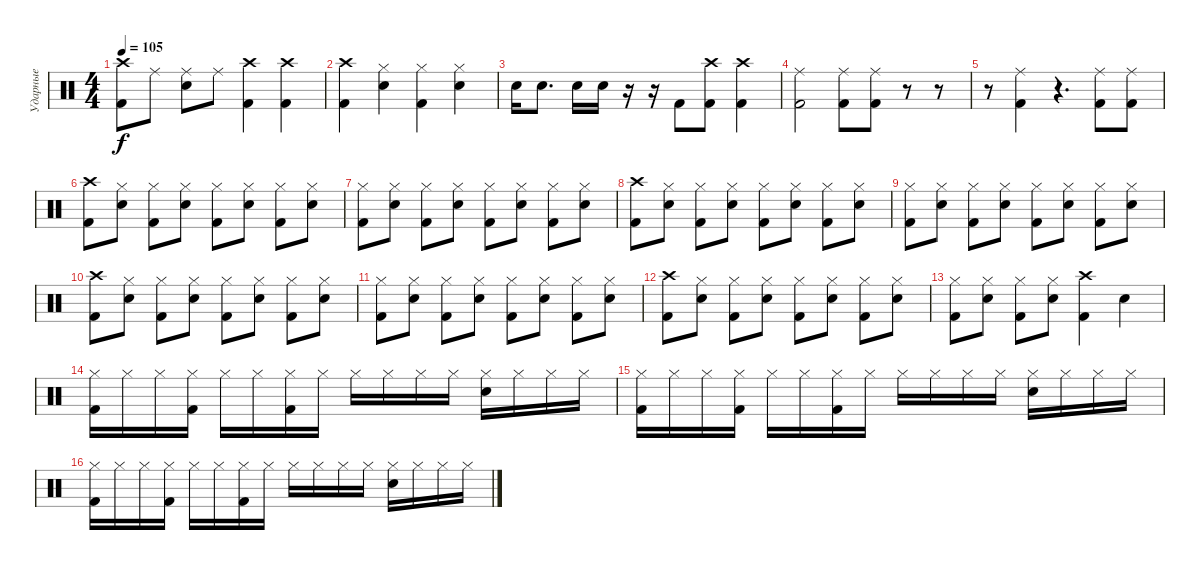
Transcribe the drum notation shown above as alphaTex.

\track ("Ударные" "Ударные") {instrument percussion}
\staff {score}
\articulation defaults
\ts (4 4)
\tempo 105
\clef neutral
\ks c
("Crash high (hit)" "Kick (hit) 2").8{dy f} "Ride (middle)".8 ("Electric Snare (hit)" "Ride (middle)").8 "Ride (middle)".8 ("Crash high (hit)" "Kick (hit) 2").4 ("Kick (hit) 2" "Crash high (hit)").4 |
("Kick (hit) 2" "Crash high (hit)").4 ("Hi-Hat (closed)" "Electric Snare (hit)").4 ("Hi-Hat (closed)" "Kick (hit) 2").4 ("Hi-Hat (closed)" "Electric Snare (hit)").4 |
"Electric Snare (hit)".16 "Electric Snare (hit)".8{d} "Electric Snare (hit)".16 "Electric Snare (hit)".16 r.16 r.16 "Kick (hit) 2".8 ("Crash high (hit)" "Kick (hit) 2").8 ("Kick (hit) 2" "Crash high (hit)").4 |
("Kick (hit) 2" "Ride (middle)").2 ("Kick (hit) 2" "Ride (middle)").8 ("Kick (hit) 2" "Ride (middle)").8 r.8 r.8 |
r.8 ("Ride (middle)" "Kick (hit) 2").4 r.4{d} ("Ride (middle)" "Kick (hit) 2").8 ("Kick (hit) 2" "Ride (middle)").8 |
("Crash high (hit)" "Kick (hit) 2").8 ("Hi-Hat (closed)" "Electric Snare (hit)").8 ("Hi-Hat (closed)" "Kick (hit) 2").8 ("Hi-Hat (closed)" "Electric Snare (hit)").8 ("Hi-Hat (closed)" "Kick (hit) 2").8 ("Hi-Hat (closed)" "Electric Snare (hit)").8 ("Hi-Hat (closed)" "Kick (hit) 2").8 ("Hi-Hat (closed)" "Electric Snare (hit)").8 |
("Hi-Hat (closed)" "Kick (hit) 2").8 ("Hi-Hat (closed)" "Electric Snare (hit)").8 ("Hi-Hat (closed)" "Kick (hit) 2").8 ("Hi-Hat (closed)" "Electric Snare (hit)").8 ("Hi-Hat (closed)" "Kick (hit) 2").8 ("Hi-Hat (closed)" "Electric Snare (hit)").8 ("Hi-Hat (closed)" "Kick (hit) 2").8 ("Hi-Hat (closed)" "Electric Snare (hit)").8 |
("Crash high (hit)" "Kick (hit) 2").8 ("Hi-Hat (closed)" "Electric Snare (hit)").8 ("Hi-Hat (closed)" "Kick (hit) 2").8 ("Hi-Hat (closed)" "Electric Snare (hit)").8 ("Hi-Hat (closed)" "Kick (hit) 2").8 ("Hi-Hat (closed)" "Electric Snare (hit)").8 ("Hi-Hat (closed)" "Kick (hit) 2").8 ("Hi-Hat (closed)" "Electric Snare (hit)").8 |
("Hi-Hat (closed)" "Kick (hit) 2").8 ("Hi-Hat (closed)" "Electric Snare (hit)").8 ("Hi-Hat (closed)" "Kick (hit) 2").8 ("Hi-Hat (closed)" "Electric Snare (hit)").8 ("Hi-Hat (closed)" "Kick (hit) 2").8 ("Hi-Hat (closed)" "Electric Snare (hit)").8 ("Hi-Hat (closed)" "Kick (hit) 2").8 ("Hi-Hat (closed)" "Electric Snare (hit)").8 |
("Crash high (hit)" "Kick (hit) 2").8 ("Hi-Hat (closed)" "Electric Snare (hit)").8 ("Hi-Hat (closed)" "Kick (hit) 2").8 ("Hi-Hat (closed)" "Electric Snare (hit)").8 ("Hi-Hat (closed)" "Kick (hit) 2").8 ("Hi-Hat (closed)" "Electric Snare (hit)").8 ("Hi-Hat (closed)" "Kick (hit) 2").8 ("Hi-Hat (closed)" "Electric Snare (hit)").8 |
("Hi-Hat (closed)" "Kick (hit) 2").8 ("Hi-Hat (closed)" "Electric Snare (hit)").8 ("Hi-Hat (closed)" "Kick (hit) 2").8 ("Hi-Hat (closed)" "Electric Snare (hit)").8 ("Hi-Hat (closed)" "Kick (hit) 2").8 ("Hi-Hat (closed)" "Electric Snare (hit)").8 ("Hi-Hat (closed)" "Kick (hit) 2").8 ("Hi-Hat (closed)" "Electric Snare (hit)").8 |
("Crash high (hit)" "Kick (hit) 2").8 ("Hi-Hat (closed)" "Electric Snare (hit)").8 ("Hi-Hat (closed)" "Kick (hit) 2").8 ("Hi-Hat (closed)" "Electric Snare (hit)").8 ("Hi-Hat (closed)" "Kick (hit) 2").8 ("Hi-Hat (closed)" "Electric Snare (hit)").8 ("Hi-Hat (closed)" "Kick (hit) 2").8 ("Hi-Hat (closed)" "Electric Snare (hit)").8 |
("Hi-Hat (closed)" "Kick (hit) 2").8 ("Hi-Hat (closed)" "Electric Snare (hit)").8 ("Hi-Hat (closed)" "Kick (hit) 2").8 ("Hi-Hat (closed)" "Electric Snare (hit)").8 ("Crash high (hit)" "Kick (hit) 2").4 "Electric Snare (hit)".4 |
("Kick (hit) 2" "Hi-Hat (closed)").16 "Hi-Hat (closed)".16 "Hi-Hat (closed)".16 ("Kick (hit) 2" "Hi-Hat (closed)").16 "Hi-Hat (closed)".16 "Hi-Hat (closed)".16 ("Kick (hit) 2" "Hi-Hat (closed)").16 "Hi-Hat (closed)".16 "Hi-Hat (closed)".16 "Hi-Hat (closed)".16 "Hi-Hat (closed)".16 "Hi-Hat (closed)".16 ("Electric Snare (hit)" "Hi-Hat (closed)").16 "Hi-Hat (closed)".16 "Hi-Hat (closed)".16 "Hi-Hat (closed)".16 |
("Kick (hit) 2" "Hi-Hat (closed)").16 "Hi-Hat (closed)".16 "Hi-Hat (closed)".16 ("Kick (hit) 2" "Hi-Hat (closed)").16 "Hi-Hat (closed)".16 "Hi-Hat (closed)".16 ("Kick (hit) 2" "Hi-Hat (closed)").16 "Hi-Hat (closed)".16 "Hi-Hat (closed)".16 "Hi-Hat (closed)".16 "Hi-Hat (closed)".16 "Hi-Hat (closed)".16 ("Electric Snare (hit)" "Hi-Hat (closed)").16 "Hi-Hat (closed)".16 "Hi-Hat (closed)".16 "Hi-Hat (closed)".16 |
("Kick (hit) 2" "Hi-Hat (closed)").16 "Hi-Hat (closed)".16 "Hi-Hat (closed)".16 ("Kick (hit) 2" "Hi-Hat (closed)").16 "Hi-Hat (closed)".16 "Hi-Hat (closed)".16 ("Kick (hit) 2" "Hi-Hat (closed)").16 "Hi-Hat (closed)".16 "Hi-Hat (closed)".16 "Hi-Hat (closed)".16 "Hi-Hat (closed)".16 "Hi-Hat (closed)".16 ("Electric Snare (hit)" "Hi-Hat (closed)").16 "Hi-Hat (closed)".16 "Hi-Hat (closed)".16 "Hi-Hat (closed)".16
